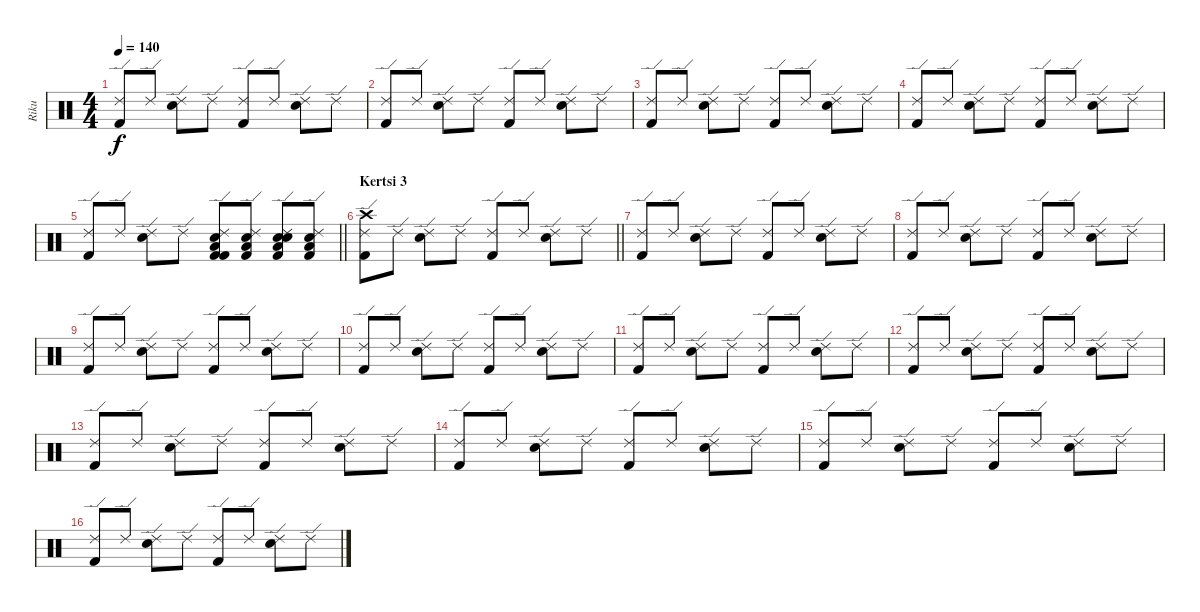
\track ("Riku" "Riku") {instrument percussion}
\staff {score}
\articulation defaults
\ts (4 4)
\tempo 140
\clef neutral
\ks c
("Kick (hit) 2" "Ride (edge) 2").8{dy f} "Ride (edge) 2".8 ("Electric Snare (hit)" "Ride (edge) 2").8 "Ride (edge) 2".8 ("Kick (hit) 2" "Ride (edge) 2").8 "Ride (edge) 2".8 ("Electric Snare (hit)" "Ride (edge) 2").8 "Ride (edge) 2".8 |
("Kick (hit) 2" "Ride (edge) 2").8 "Ride (edge) 2".8 ("Electric Snare (hit)" "Ride (edge) 2").8 "Ride (edge) 2".8 ("Kick (hit) 2" "Ride (edge) 2").8 "Ride (edge) 2".8 ("Electric Snare (hit)" "Ride (edge) 2").8 "Ride (edge) 2".8 |
("Kick (hit) 2" "Ride (edge) 2").8 "Ride (edge) 2".8 ("Electric Snare (hit)" "Ride (edge) 2").8 "Ride (edge) 2".8 ("Kick (hit) 2" "Ride (edge) 2").8 "Ride (edge) 2".8 ("Electric Snare (hit)" "Ride (edge) 2").8 "Ride (edge) 2".8 |
("Kick (hit) 2" "Ride (edge) 2").8 "Ride (edge) 2".8 ("Electric Snare (hit)" "Ride (edge) 2").8 "Ride (edge) 2".8 ("Kick (hit) 2" "Ride (edge) 2").8 "Ride (edge) 2".8 ("Electric Snare (hit)" "Ride (edge) 2").8 "Ride (edge) 2".8 |
\barLineRight lightlight
("Kick (hit) 2" "Ride (edge) 2").8 "Ride (edge) 2".8 ("Electric Snare (hit)" "Ride (edge) 2").8 "Ride (edge) 2".8 ("Kick (hit) 2" "Low Tom (hit)" "Snare (hit) 2" "Kick (hit) 2" "Ride (edge) 2").8 ("Kick (hit) 2" "Low Tom (hit)" "Snare (hit) 2" "Ride (edge) 2").8 ("Kick (hit) 2" "Low Tom (hit)" "Snare (hit) 2" "Electric Snare (hit)" "Ride (edge) 2").8 ("Kick (hit) 2" "Low Tom (hit)" "Snare (hit) 2" "Ride (edge) 2").8 |
\section ("" "Kertsi 3")
\barLineRight lightlight
("Crash high (hit)" "Kick (hit) 2" "Ride (edge) 2").8 "Ride (edge) 2".8 ("Electric Snare (hit)" "Ride (edge) 2").8 "Ride (edge) 2".8 ("Kick (hit) 2" "Ride (edge) 2").8 "Ride (edge) 2".8 ("Electric Snare (hit)" "Ride (edge) 2").8 "Ride (edge) 2".8 |
("Kick (hit) 2" "Ride (edge) 2").8 "Ride (edge) 2".8 ("Electric Snare (hit)" "Ride (edge) 2").8 "Ride (edge) 2".8 ("Kick (hit) 2" "Ride (edge) 2").8 "Ride (edge) 2".8 ("Electric Snare (hit)" "Ride (edge) 2").8 "Ride (edge) 2".8 |
("Kick (hit) 2" "Ride (edge) 2").8 "Ride (edge) 2".8 ("Electric Snare (hit)" "Ride (edge) 2").8 "Ride (edge) 2".8 ("Kick (hit) 2" "Ride (edge) 2").8 "Ride (edge) 2".8 ("Electric Snare (hit)" "Ride (edge) 2").8 "Ride (edge) 2".8 |
("Kick (hit) 2" "Ride (edge) 2").8 "Ride (edge) 2".8 ("Electric Snare (hit)" "Ride (edge) 2").8 "Ride (edge) 2".8 ("Kick (hit) 2" "Ride (edge) 2").8 "Ride (edge) 2".8 ("Electric Snare (hit)" "Ride (edge) 2").8 "Ride (edge) 2".8 |
("Kick (hit) 2" "Ride (edge) 2").8 "Ride (edge) 2".8 ("Electric Snare (hit)" "Ride (edge) 2").8 "Ride (edge) 2".8 ("Kick (hit) 2" "Ride (edge) 2").8 "Ride (edge) 2".8 ("Electric Snare (hit)" "Ride (edge) 2").8 "Ride (edge) 2".8 |
("Kick (hit) 2" "Ride (edge) 2").8 "Ride (edge) 2".8 ("Electric Snare (hit)" "Ride (edge) 2").8 "Ride (edge) 2".8 ("Kick (hit) 2" "Ride (edge) 2").8 "Ride (edge) 2".8 ("Electric Snare (hit)" "Ride (edge) 2").8 "Ride (edge) 2".8 |
("Kick (hit) 2" "Ride (edge) 2").8 "Ride (edge) 2".8 ("Electric Snare (hit)" "Ride (edge) 2").8 "Ride (edge) 2".8 ("Kick (hit) 2" "Ride (edge) 2").8 "Ride (edge) 2".8 ("Electric Snare (hit)" "Ride (edge) 2").8 "Ride (edge) 2".8 |
("Kick (hit) 2" "Ride (edge) 2").8 "Ride (edge) 2".8 ("Electric Snare (hit)" "Ride (edge) 2").8 "Ride (edge) 2".8 ("Kick (hit) 2" "Ride (edge) 2").8 "Ride (edge) 2".8 ("Electric Snare (hit)" "Ride (edge) 2").8 "Ride (edge) 2".8 |
("Kick (hit) 2" "Ride (edge) 2").8 "Ride (edge) 2".8 ("Electric Snare (hit)" "Ride (edge) 2").8 "Ride (edge) 2".8 ("Kick (hit) 2" "Ride (edge) 2").8 "Ride (edge) 2".8 ("Electric Snare (hit)" "Ride (edge) 2").8 "Ride (edge) 2".8 |
("Kick (hit) 2" "Ride (edge) 2").8 "Ride (edge) 2".8 ("Electric Snare (hit)" "Ride (edge) 2").8 "Ride (edge) 2".8 ("Kick (hit) 2" "Ride (edge) 2").8 "Ride (edge) 2".8 ("Electric Snare (hit)" "Ride (edge) 2").8 "Ride (edge) 2".8 |
("Kick (hit) 2" "Ride (edge) 2").8 "Ride (edge) 2".8 ("Electric Snare (hit)" "Ride (edge) 2").8 "Ride (edge) 2".8 ("Kick (hit) 2" "Ride (edge) 2").8 "Ride (edge) 2".8 ("Electric Snare (hit)" "Ride (edge) 2").8 "Ride (edge) 2".8
